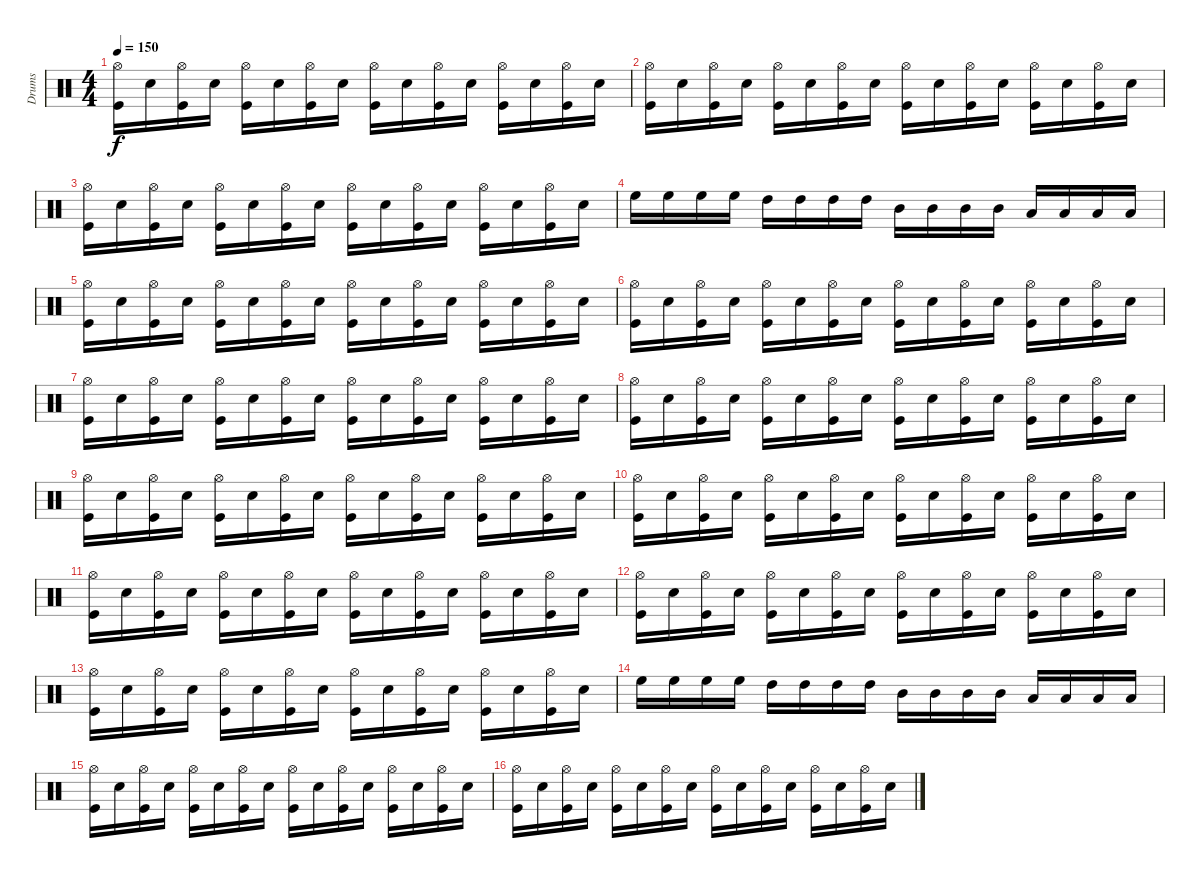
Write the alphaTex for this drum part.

\track ("Drums" "Drums") {instrument percussion}
\staff {score}
\articulation defaults
\ts (4 4)
\tempo 150
\clef neutral
\ks c
("Hi-Hat (open)" "Kick (hit)").16{dy f} "Snare (hit) 2".16 ("Hi-Hat (open)" "Kick (hit)").16 "Snare (hit) 2".16 ("Hi-Hat (open)" "Kick (hit)").16 "Snare (hit) 2".16 ("Hi-Hat (open)" "Kick (hit)").16 "Snare (hit) 2".16 ("Hi-Hat (open)" "Kick (hit)").16 "Snare (hit) 2".16 ("Hi-Hat (open)" "Kick (hit)").16 "Snare (hit) 2".16 ("Hi-Hat (open)" "Kick (hit)").16 "Snare (hit) 2".16 ("Hi-Hat (open)" "Kick (hit)").16 "Snare (hit) 2".16 |
("Hi-Hat (open)" "Kick (hit)").16 "Snare (hit) 2".16 ("Hi-Hat (open)" "Kick (hit)").16 "Snare (hit) 2".16 ("Hi-Hat (open)" "Kick (hit)").16 "Snare (hit) 2".16 ("Hi-Hat (open)" "Kick (hit)").16 "Snare (hit) 2".16 ("Hi-Hat (open)" "Kick (hit)").16 "Snare (hit) 2".16 ("Hi-Hat (open)" "Kick (hit)").16 "Snare (hit) 2".16 ("Hi-Hat (open)" "Kick (hit)").16 "Snare (hit) 2".16 ("Hi-Hat (open)" "Kick (hit)").16 "Snare (hit) 2".16 |
("Hi-Hat (open)" "Kick (hit)").16 "Snare (hit) 2".16 ("Hi-Hat (open)" "Kick (hit)").16 "Snare (hit) 2".16 ("Hi-Hat (open)" "Kick (hit)").16 "Snare (hit) 2".16 ("Hi-Hat (open)" "Kick (hit)").16 "Snare (hit) 2".16 ("Hi-Hat (open)" "Kick (hit)").16 "Snare (hit) 2".16 ("Hi-Hat (open)" "Kick (hit)").16 "Snare (hit) 2".16 ("Hi-Hat (open)" "Kick (hit)").16 "Snare (hit) 2".16 ("Hi-Hat (open)" "Kick (hit)").16 "Snare (hit) 2".16 |
"High Floor Tom (hit)".16 "High Floor Tom (hit)".16 "High Floor Tom (hit)".16 "High Floor Tom (hit)".16 "High Tom (hit)".16 "High Tom (hit)".16 "High Tom (hit)".16 "High Tom (hit)".16 "Mid Tom (hit)".16 "Mid Tom (hit)".16 "Mid Tom (hit)".16 "Mid Tom (hit)".16 "Low Tom (hit)".16 "Low Tom (hit)".16 "Low Tom (hit)".16 "Low Tom (hit)".16 |
("Hi-Hat (open)" "Kick (hit)").16 "Snare (hit) 2".16 ("Hi-Hat (open)" "Kick (hit)").16 "Snare (hit) 2".16 ("Hi-Hat (open)" "Kick (hit)").16 "Snare (hit) 2".16 ("Hi-Hat (open)" "Kick (hit)").16 "Snare (hit) 2".16 ("Hi-Hat (open)" "Kick (hit)").16 "Snare (hit) 2".16 ("Hi-Hat (open)" "Kick (hit)").16 "Snare (hit) 2".16 ("Hi-Hat (open)" "Kick (hit)").16 "Snare (hit) 2".16 ("Hi-Hat (open)" "Kick (hit)").16 "Snare (hit) 2".16 |
("Hi-Hat (open)" "Kick (hit)").16 "Snare (hit) 2".16 ("Hi-Hat (open)" "Kick (hit)").16 "Snare (hit) 2".16 ("Hi-Hat (open)" "Kick (hit)").16 "Snare (hit) 2".16 ("Hi-Hat (open)" "Kick (hit)").16 "Snare (hit) 2".16 ("Hi-Hat (open)" "Kick (hit)").16 "Snare (hit) 2".16 ("Hi-Hat (open)" "Kick (hit)").16 "Snare (hit) 2".16 ("Hi-Hat (open)" "Kick (hit)").16 "Snare (hit) 2".16 ("Hi-Hat (open)" "Kick (hit)").16 "Snare (hit) 2".16 |
("Hi-Hat (open)" "Kick (hit)").16 "Snare (hit) 2".16 ("Hi-Hat (open)" "Kick (hit)").16 "Snare (hit) 2".16 ("Hi-Hat (open)" "Kick (hit)").16 "Snare (hit) 2".16 ("Hi-Hat (open)" "Kick (hit)").16 "Snare (hit) 2".16 ("Hi-Hat (open)" "Kick (hit)").16 "Snare (hit) 2".16 ("Hi-Hat (open)" "Kick (hit)").16 "Snare (hit) 2".16 ("Hi-Hat (open)" "Kick (hit)").16 "Snare (hit) 2".16 ("Hi-Hat (open)" "Kick (hit)").16 "Snare (hit) 2".16 |
("Hi-Hat (open)" "Kick (hit)").16 "Snare (hit) 2".16 ("Hi-Hat (open)" "Kick (hit)").16 "Snare (hit) 2".16 ("Hi-Hat (open)" "Kick (hit)").16 "Snare (hit) 2".16 ("Hi-Hat (open)" "Kick (hit)").16 "Snare (hit) 2".16 ("Hi-Hat (open)" "Kick (hit)").16 "Snare (hit) 2".16 ("Hi-Hat (open)" "Kick (hit)").16 "Snare (hit) 2".16 ("Hi-Hat (open)" "Kick (hit)").16 "Snare (hit) 2".16 ("Hi-Hat (open)" "Kick (hit)").16 "Snare (hit) 2".16 |
("Hi-Hat (open)" "Kick (hit)").16 "Snare (hit) 2".16 ("Hi-Hat (open)" "Kick (hit)").16 "Snare (hit) 2".16 ("Hi-Hat (open)" "Kick (hit)").16 "Snare (hit) 2".16 ("Hi-Hat (open)" "Kick (hit)").16 "Snare (hit) 2".16 ("Hi-Hat (open)" "Kick (hit)").16 "Snare (hit) 2".16 ("Hi-Hat (open)" "Kick (hit)").16 "Snare (hit) 2".16 ("Hi-Hat (open)" "Kick (hit)").16 "Snare (hit) 2".16 ("Hi-Hat (open)" "Kick (hit)").16 "Snare (hit) 2".16 |
("Hi-Hat (open)" "Kick (hit)").16 "Snare (hit) 2".16 ("Hi-Hat (open)" "Kick (hit)").16 "Snare (hit) 2".16 ("Hi-Hat (open)" "Kick (hit)").16 "Snare (hit) 2".16 ("Hi-Hat (open)" "Kick (hit)").16 "Snare (hit) 2".16 ("Hi-Hat (open)" "Kick (hit)").16 "Snare (hit) 2".16 ("Hi-Hat (open)" "Kick (hit)").16 "Snare (hit) 2".16 ("Hi-Hat (open)" "Kick (hit)").16 "Snare (hit) 2".16 ("Hi-Hat (open)" "Kick (hit)").16 "Snare (hit) 2".16 |
("Hi-Hat (open)" "Kick (hit)").16 "Snare (hit) 2".16 ("Hi-Hat (open)" "Kick (hit)").16 "Snare (hit) 2".16 ("Hi-Hat (open)" "Kick (hit)").16 "Snare (hit) 2".16 ("Hi-Hat (open)" "Kick (hit)").16 "Snare (hit) 2".16 ("Hi-Hat (open)" "Kick (hit)").16 "Snare (hit) 2".16 ("Hi-Hat (open)" "Kick (hit)").16 "Snare (hit) 2".16 ("Hi-Hat (open)" "Kick (hit)").16 "Snare (hit) 2".16 ("Hi-Hat (open)" "Kick (hit)").16 "Snare (hit) 2".16 |
("Hi-Hat (open)" "Kick (hit)").16 "Snare (hit) 2".16 ("Hi-Hat (open)" "Kick (hit)").16 "Snare (hit) 2".16 ("Hi-Hat (open)" "Kick (hit)").16 "Snare (hit) 2".16 ("Hi-Hat (open)" "Kick (hit)").16 "Snare (hit) 2".16 ("Hi-Hat (open)" "Kick (hit)").16 "Snare (hit) 2".16 ("Hi-Hat (open)" "Kick (hit)").16 "Snare (hit) 2".16 ("Hi-Hat (open)" "Kick (hit)").16 "Snare (hit) 2".16 ("Hi-Hat (open)" "Kick (hit)").16 "Snare (hit) 2".16 |
("Hi-Hat (open)" "Kick (hit)").16 "Snare (hit) 2".16 ("Hi-Hat (open)" "Kick (hit)").16 "Snare (hit) 2".16 ("Hi-Hat (open)" "Kick (hit)").16 "Snare (hit) 2".16 ("Hi-Hat (open)" "Kick (hit)").16 "Snare (hit) 2".16 ("Hi-Hat (open)" "Kick (hit)").16 "Snare (hit) 2".16 ("Hi-Hat (open)" "Kick (hit)").16 "Snare (hit) 2".16 ("Hi-Hat (open)" "Kick (hit)").16 "Snare (hit) 2".16 ("Hi-Hat (open)" "Kick (hit)").16 "Snare (hit) 2".16 |
"High Floor Tom (hit)".16 "High Floor Tom (hit)".16 "High Floor Tom (hit)".16 "High Floor Tom (hit)".16 "High Tom (hit)".16 "High Tom (hit)".16 "High Tom (hit)".16 "High Tom (hit)".16 "Mid Tom (hit)".16 "Mid Tom (hit)".16 "Mid Tom (hit)".16 "Mid Tom (hit)".16 "Low Tom (hit)".16 "Low Tom (hit)".16 "Low Tom (hit)".16 "Low Tom (hit)".16 |
("Hi-Hat (open)" "Kick (hit)").16 "Snare (hit) 2".16 ("Hi-Hat (open)" "Kick (hit)").16 "Snare (hit) 2".16 ("Hi-Hat (open)" "Kick (hit)").16 "Snare (hit) 2".16 ("Hi-Hat (open)" "Kick (hit)").16 "Snare (hit) 2".16 ("Hi-Hat (open)" "Kick (hit)").16 "Snare (hit) 2".16 ("Hi-Hat (open)" "Kick (hit)").16 "Snare (hit) 2".16 ("Hi-Hat (open)" "Kick (hit)").16 "Snare (hit) 2".16 ("Hi-Hat (open)" "Kick (hit)").16 "Snare (hit) 2".16 |
("Hi-Hat (open)" "Kick (hit)").16 "Snare (hit) 2".16 ("Hi-Hat (open)" "Kick (hit)").16 "Snare (hit) 2".16 ("Hi-Hat (open)" "Kick (hit)").16 "Snare (hit) 2".16 ("Hi-Hat (open)" "Kick (hit)").16 "Snare (hit) 2".16 ("Hi-Hat (open)" "Kick (hit)").16 "Snare (hit) 2".16 ("Hi-Hat (open)" "Kick (hit)").16 "Snare (hit) 2".16 ("Hi-Hat (open)" "Kick (hit)").16 "Snare (hit) 2".16 ("Hi-Hat (open)" "Kick (hit)").16 "Snare (hit) 2".16
